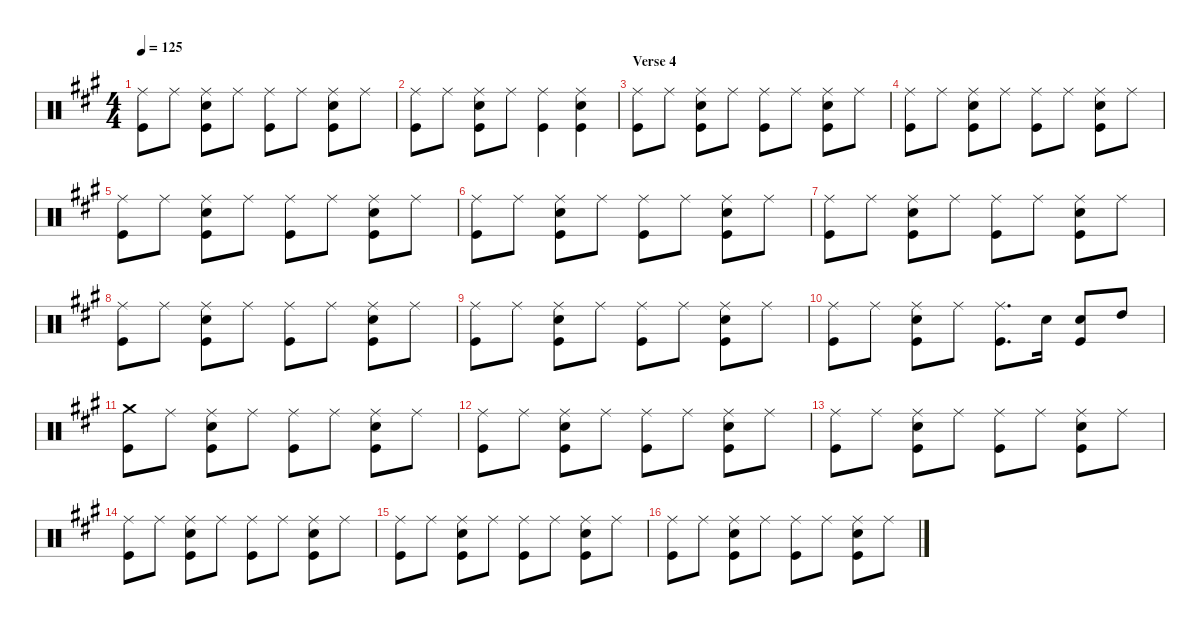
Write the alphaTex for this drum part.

\defaultSystemsLayout 4
\hideDynamics
\bracketExtendMode nobrackets
\singleTrackTrackNamePolicy hidden
\multiTrackTrackNamePolicy hidden
\otherSystemsTrackNameOrientation horizontal
\track ("Drums" "drm.") {instrument percussion}
\staff {score}
\articulation defaults
\ts (4 4)
\tempo 125
\clef neutral
\ks a
("Ride (middle)"{acc forcenatural} "Kick (hit)"{acc forcenatural}).8{dy f beam Down} "Ride (middle)"{acc forcenatural}.8{beam Down} ("Ride (middle)"{acc forcenatural} "Snare (hit) 2"{acc forcenatural} "Kick (hit)"{acc forcenatural}).8{beam Down} "Ride (middle)"{acc forcenatural}.8{beam Down} ("Ride (middle)"{acc forcenatural} "Kick (hit)"{acc forcenatural}).8{beam Down} "Ride (middle)"{acc forcenatural}.8{beam Down} ("Ride (middle)"{acc forcenatural} "Snare (hit) 2"{acc forcenatural} "Kick (hit)"{acc forcenatural}).8{beam Down} "Ride (middle)"{acc forcenatural}.8{beam Down} |
("Ride (middle)"{acc forcenatural} "Kick (hit)"{acc forcenatural}).8{beam Down} "Ride (middle)"{acc forcenatural}.8{beam Down} ("Ride (middle)"{acc forcenatural} "Snare (hit) 2"{acc forcenatural} "Kick (hit)"{acc forcenatural}).8{beam Down} "Ride (middle)"{acc forcenatural}.8{beam Down} ("Ride (middle)"{acc forcenatural} "Kick (hit)"{acc forcenatural}).4{beam Down} ("Ride (middle)"{acc forcenatural} "Snare (hit) 2"{acc forcenatural} "Kick (hit)"{acc forcenatural}).4{beam Down} |
\section ("" "Verse 4")
("Ride (middle)"{acc forcenatural} "Kick (hit)"{acc forcenatural}).8{beam Down} "Ride (middle)"{acc forcenatural}.8{beam Down} ("Ride (middle)"{acc forcenatural} "Snare (hit) 2"{acc forcenatural} "Kick (hit)"{acc forcenatural}).8{beam Down} "Ride (middle)"{acc forcenatural}.8{beam Down} ("Ride (middle)"{acc forcenatural} "Kick (hit)"{acc forcenatural}).8{beam Down} "Ride (middle)"{acc forcenatural}.8{beam Down} ("Ride (middle)"{acc forcenatural} "Snare (hit) 2"{acc forcenatural} "Kick (hit)"{acc forcenatural}).8{beam Down} "Ride (middle)"{acc forcenatural}.8{beam Down} |
("Ride (middle)"{acc forcenatural} "Kick (hit)"{acc forcenatural}).8{beam Down} "Ride (middle)"{acc forcenatural}.8{beam Down} ("Ride (middle)"{acc forcenatural} "Snare (hit) 2"{acc forcenatural} "Kick (hit)"{acc forcenatural}).8{beam Down} "Ride (middle)"{acc forcenatural}.8{beam Down} ("Ride (middle)"{acc forcenatural} "Kick (hit)"{acc forcenatural}).8{beam Down} "Ride (middle)"{acc forcenatural}.8{beam Down} ("Ride (middle)"{acc forcenatural} "Snare (hit) 2"{acc forcenatural} "Kick (hit)"{acc forcenatural}).8{beam Down} "Ride (middle)"{acc forcenatural}.8{beam Down} |
("Ride (middle)"{acc forcenatural} "Kick (hit)"{acc forcenatural}).8{beam Down} "Ride (middle)"{acc forcenatural}.8{beam Down} ("Ride (middle)"{acc forcenatural} "Snare (hit) 2"{acc forcenatural} "Kick (hit)"{acc forcenatural}).8{beam Down} "Ride (middle)"{acc forcenatural}.8{beam Down} ("Ride (middle)"{acc forcenatural} "Kick (hit)"{acc forcenatural}).8{beam Down} "Ride (middle)"{acc forcenatural}.8{beam Down} ("Ride (middle)"{acc forcenatural} "Snare (hit) 2"{acc forcenatural} "Kick (hit)"{acc forcenatural}).8{beam Down} "Ride (middle)"{acc forcenatural}.8{beam Down} |
("Ride (middle)"{acc forcenatural} "Kick (hit)"{acc forcenatural}).8{beam Down} "Ride (middle)"{acc forcenatural}.8{beam Down} ("Ride (middle)"{acc forcenatural} "Snare (hit) 2"{acc forcenatural} "Kick (hit)"{acc forcenatural}).8{beam Down} "Ride (middle)"{acc forcenatural}.8{beam Down} ("Ride (middle)"{acc forcenatural} "Kick (hit)"{acc forcenatural}).8{beam Down} "Ride (middle)"{acc forcenatural}.8{beam Down} ("Ride (middle)"{acc forcenatural} "Snare (hit) 2"{acc forcenatural} "Kick (hit)"{acc forcenatural}).8{beam Down} "Ride (middle)"{acc forcenatural}.8{beam Down} |
("Ride (middle)"{acc forcenatural} "Kick (hit)"{acc forcenatural}).8{beam Down} "Ride (middle)"{acc forcenatural}.8{beam Down} ("Ride (middle)"{acc forcenatural} "Snare (hit) 2"{acc forcenatural} "Kick (hit)"{acc forcenatural}).8{beam Down} "Ride (middle)"{acc forcenatural}.8{beam Down} ("Ride (middle)"{acc forcenatural} "Kick (hit)"{acc forcenatural}).8{beam Down} "Ride (middle)"{acc forcenatural}.8{beam Down} ("Ride (middle)"{acc forcenatural} "Snare (hit) 2"{acc forcenatural} "Kick (hit)"{acc forcenatural}).8{beam Down} "Ride (middle)"{acc forcenatural}.8{beam Down} |
("Ride (middle)"{acc forcenatural} "Kick (hit)"{acc forcenatural}).8{beam Down} "Ride (middle)"{acc forcenatural}.8{beam Down} ("Ride (middle)"{acc forcenatural} "Snare (hit) 2"{acc forcenatural} "Kick (hit)"{acc forcenatural}).8{beam Down} "Ride (middle)"{acc forcenatural}.8{beam Down} ("Ride (middle)"{acc forcenatural} "Kick (hit)"{acc forcenatural}).8{beam Down} "Ride (middle)"{acc forcenatural}.8{beam Down} ("Ride (middle)"{acc forcenatural} "Snare (hit) 2"{acc forcenatural} "Kick (hit)"{acc forcenatural}).8{beam Down} "Ride (middle)"{acc forcenatural}.8{beam Down} |
("Ride (middle)"{acc forcenatural} "Kick (hit)"{acc forcenatural}).8{beam Down} "Ride (middle)"{acc forcenatural}.8{beam Down} ("Ride (middle)"{acc forcenatural} "Snare (hit) 2"{acc forcenatural} "Kick (hit)"{acc forcenatural}).8{beam Down} "Ride (middle)"{acc forcenatural}.8{beam Down} ("Ride (middle)"{acc forcenatural} "Kick (hit)"{acc forcenatural}).8{beam Down} "Ride (middle)"{acc forcenatural}.8{beam Down} ("Ride (middle)"{acc forcenatural} "Snare (hit) 2"{acc forcenatural} "Kick (hit)"{acc forcenatural}).8{beam Down} "Ride (middle)"{acc forcenatural}.8{beam Down} |
("Ride (middle)"{acc forcenatural} "Kick (hit)"{acc forcenatural}).8{beam Down} "Ride (middle)"{acc forcenatural}.8{beam Down} ("Ride (middle)"{acc forcenatural} "Snare (hit) 2"{acc forcenatural} "Kick (hit)"{acc forcenatural}).8{beam Down} "Ride (middle)"{acc forcenatural}.8{beam Down} ("Ride (middle)"{acc forcenatural} "Kick (hit)"{acc forcenatural}).8{d beam Down} "Snare (hit) 2"{acc forcenatural}.16{beam Down} ("Snare (hit) 2"{acc forcenatural} "Kick (hit)"{acc forcenatural}).8{beam Up} "High Tom (hit)"{acc forcenatural}.8{beam Up} |
("Crash medium (hit)"{acc forcenatural} "Kick (hit)"{acc forcenatural}).8{beam Down} "Ride (middle)"{acc forcenatural}.8{beam Down} ("Ride (middle)"{acc forcenatural} "Snare (hit) 2"{acc forcenatural} "Kick (hit)"{acc forcenatural}).8{beam Down} "Ride (middle)"{acc forcenatural}.8{beam Down} ("Ride (middle)"{acc forcenatural} "Kick (hit)"{acc forcenatural}).8{beam Down} "Ride (middle)"{acc forcenatural}.8{beam Down} ("Ride (middle)"{acc forcenatural} "Snare (hit) 2"{acc forcenatural} "Kick (hit)"{acc forcenatural}).8{beam Down} "Ride (middle)"{acc forcenatural}.8{beam Down} |
("Ride (middle)"{acc forcenatural} "Kick (hit)"{acc forcenatural}).8{beam Down} "Ride (middle)"{acc forcenatural}.8{beam Down} ("Ride (middle)"{acc forcenatural} "Snare (hit) 2"{acc forcenatural} "Kick (hit)"{acc forcenatural}).8{beam Down} "Ride (middle)"{acc forcenatural}.8{beam Down} ("Ride (middle)"{acc forcenatural} "Kick (hit)"{acc forcenatural}).8{beam Down} "Ride (middle)"{acc forcenatural}.8{beam Down} ("Ride (middle)"{acc forcenatural} "Snare (hit) 2"{acc forcenatural} "Kick (hit)"{acc forcenatural}).8{beam Down} "Ride (middle)"{acc forcenatural}.8{beam Down} |
("Ride (middle)"{acc forcenatural} "Kick (hit)"{acc forcenatural}).8{beam Down} "Ride (middle)"{acc forcenatural}.8{beam Down} ("Ride (middle)"{acc forcenatural} "Snare (hit) 2"{acc forcenatural} "Kick (hit)"{acc forcenatural}).8{beam Down} "Ride (middle)"{acc forcenatural}.8{beam Down} ("Ride (middle)"{acc forcenatural} "Kick (hit)"{acc forcenatural}).8{beam Down} "Ride (middle)"{acc forcenatural}.8{beam Down} ("Ride (middle)"{acc forcenatural} "Snare (hit) 2"{acc forcenatural} "Kick (hit)"{acc forcenatural}).8{beam Down} "Ride (middle)"{acc forcenatural}.8{beam Down} |
("Ride (middle)"{acc forcenatural} "Kick (hit)"{acc forcenatural}).8{beam Down} "Ride (middle)"{acc forcenatural}.8{beam Down} ("Ride (middle)"{acc forcenatural} "Snare (hit) 2"{acc forcenatural} "Kick (hit)"{acc forcenatural}).8{beam Down} "Ride (middle)"{acc forcenatural}.8{beam Down} ("Ride (middle)"{acc forcenatural} "Kick (hit)"{acc forcenatural}).8{beam Down} "Ride (middle)"{acc forcenatural}.8{beam Down} ("Ride (middle)"{acc forcenatural} "Snare (hit) 2"{acc forcenatural} "Kick (hit)"{acc forcenatural}).8{beam Down} "Ride (middle)"{acc forcenatural}.8{beam Down} |
("Ride (middle)"{acc forcenatural} "Kick (hit)"{acc forcenatural}).8{beam Down} "Ride (middle)"{acc forcenatural}.8{beam Down} ("Ride (middle)"{acc forcenatural} "Snare (hit) 2"{acc forcenatural} "Kick (hit)"{acc forcenatural}).8{beam Down} "Ride (middle)"{acc forcenatural}.8{beam Down} ("Ride (middle)"{acc forcenatural} "Kick (hit)"{acc forcenatural}).8{beam Down} "Ride (middle)"{acc forcenatural}.8{beam Down} ("Ride (middle)"{acc forcenatural} "Snare (hit) 2"{acc forcenatural} "Kick (hit)"{acc forcenatural}).8{beam Down} "Ride (middle)"{acc forcenatural}.8{beam Down} |
("Ride (middle)"{acc forcenatural} "Kick (hit)"{acc forcenatural}).8{beam Down} "Ride (middle)"{acc forcenatural}.8{beam Down} ("Ride (middle)"{acc forcenatural} "Snare (hit) 2"{acc forcenatural} "Kick (hit)"{acc forcenatural}).8{beam Down} "Ride (middle)"{acc forcenatural}.8{beam Down} ("Ride (middle)"{acc forcenatural} "Kick (hit)"{acc forcenatural}).8{beam Down} "Ride (middle)"{acc forcenatural}.8{beam Down} ("Ride (middle)"{acc forcenatural} "Snare (hit) 2"{acc forcenatural} "Kick (hit)"{acc forcenatural}).8{beam Down} "Ride (middle)"{acc forcenatural}.8{beam Down}
